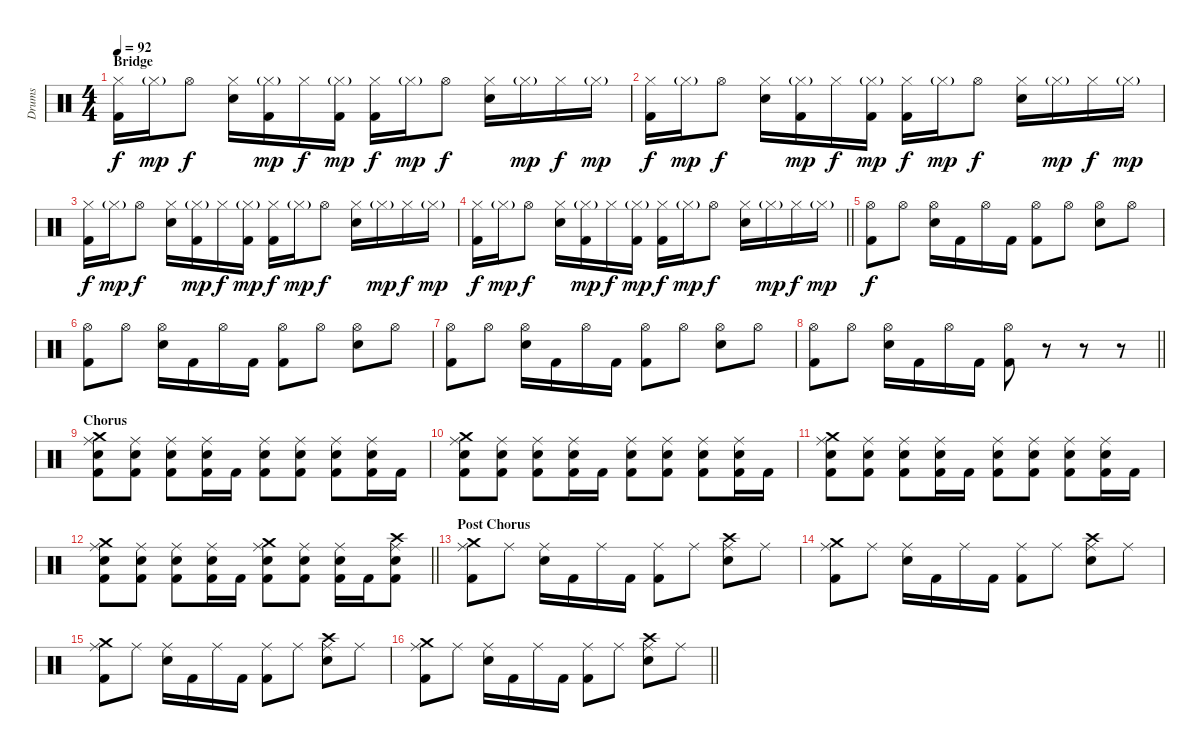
\track ("Drums" "Drums") {instrument percussion}
\staff {score}
\articulation defaults
\ts (4 4)
\section ("" "Bridge")
\tempo 92
\clef neutral
\ks c
("Hi-Hat (closed)" "Kick (hit) 2").16{dy f} "Hi-Hat (closed)"{g}.16{dy mp} "Hi-Hat (open)".8{dy f} ("Hi-Hat (closed)" "Electric Snare (hit)").16 ("Hi-Hat (closed)"{g} "Kick (hit) 2").16{dy mp} "Hi-Hat (closed)".16{dy f} ("Hi-Hat (closed)"{g} "Kick (hit) 2").16{dy mp} ("Hi-Hat (closed)" "Kick (hit) 2").16{dy f} "Hi-Hat (closed)"{g}.16{dy mp} "Hi-Hat (open)".8{dy f} ("Hi-Hat (closed)" "Electric Snare (hit)").16 "Hi-Hat (closed)"{g}.16{dy mp} "Hi-Hat (closed)".16{dy f} "Hi-Hat (closed)"{g}.16{dy mp} |
("Hi-Hat (closed)" "Kick (hit) 2").16{dy f} "Hi-Hat (closed)"{g}.16{dy mp} "Hi-Hat (open)".8{dy f} ("Hi-Hat (closed)" "Electric Snare (hit)").16 ("Hi-Hat (closed)"{g} "Kick (hit) 2").16{dy mp} "Hi-Hat (closed)".16{dy f} ("Hi-Hat (closed)"{g} "Kick (hit) 2").16{dy mp} ("Hi-Hat (closed)" "Kick (hit) 2").16{dy f} "Hi-Hat (closed)"{g}.16{dy mp} "Hi-Hat (open)".8{dy f} ("Hi-Hat (closed)" "Electric Snare (hit)").16 "Hi-Hat (closed)"{g}.16{dy mp} "Hi-Hat (closed)".16{dy f} "Hi-Hat (closed)"{g}.16{dy mp} |
("Hi-Hat (closed)" "Kick (hit) 2").16{dy f} "Hi-Hat (closed)"{g}.16{dy mp} "Hi-Hat (open)".8{dy f} ("Hi-Hat (closed)" "Electric Snare (hit)").16 ("Hi-Hat (closed)"{g} "Kick (hit) 2").16{dy mp} "Hi-Hat (closed)".16{dy f} ("Hi-Hat (closed)"{g} "Kick (hit) 2").16{dy mp} ("Hi-Hat (closed)" "Kick (hit) 2").16{dy f} "Hi-Hat (closed)"{g}.16{dy mp} "Hi-Hat (open)".8{dy f} ("Hi-Hat (closed)" "Electric Snare (hit)").16 "Hi-Hat (closed)"{g}.16{dy mp} "Hi-Hat (closed)".16{dy f} "Hi-Hat (closed)"{g}.16{dy mp} |
\barLineRight lightlight
("Hi-Hat (closed)" "Kick (hit) 2").16{dy f} "Hi-Hat (closed)"{g}.16{dy mp} "Hi-Hat (open)".8{dy f} ("Hi-Hat (closed)" "Electric Snare (hit)").16 ("Hi-Hat (closed)"{g} "Kick (hit) 2").16{dy mp} "Hi-Hat (closed)".16{dy f} ("Hi-Hat (closed)"{g} "Kick (hit) 2").16{dy mp} ("Hi-Hat (closed)" "Kick (hit) 2").16{dy f} "Hi-Hat (closed)"{g}.16{dy mp} "Hi-Hat (open)".8{dy f} ("Hi-Hat (closed)" "Electric Snare (hit)").16 "Hi-Hat (closed)"{g}.16{dy mp} "Hi-Hat (closed)".16{dy f} "Hi-Hat (closed)"{g}.16{dy mp} |
\section ("" "")
("Hi-Hat (open)" "Kick (hit) 2").8{dy f} "Hi-Hat (open)".8 ("Hi-Hat (open)" "Electric Snare (hit)").16 "Kick (hit) 2".16 "Hi-Hat (open)".16 "Kick (hit) 2".16 ("Hi-Hat (open)" "Kick (hit) 2").8 "Hi-Hat (open)".8 ("Hi-Hat (open)" "Electric Snare (hit)").8 "Hi-Hat (open)".8 |
("Hi-Hat (open)" "Kick (hit) 2").8 "Hi-Hat (open)".8 ("Hi-Hat (open)" "Electric Snare (hit)").16 "Kick (hit) 2".16 "Hi-Hat (open)".16 "Kick (hit) 2".16 ("Hi-Hat (open)" "Kick (hit) 2").8 "Hi-Hat (open)".8 ("Hi-Hat (open)" "Electric Snare (hit)").8 "Hi-Hat (open)".8 |
("Hi-Hat (open)" "Kick (hit) 2").8 "Hi-Hat (open)".8 ("Hi-Hat (open)" "Electric Snare (hit)").16 "Kick (hit) 2".16 "Hi-Hat (open)".16 "Kick (hit) 2".16 ("Hi-Hat (open)" "Kick (hit) 2").8 "Hi-Hat (open)".8 ("Hi-Hat (open)" "Electric Snare (hit)").8 "Hi-Hat (open)".8 |
\barLineRight lightlight
("Hi-Hat (open)" "Kick (hit) 2").8 "Hi-Hat (open)".8 ("Hi-Hat (open)" "Electric Snare (hit)").16 "Kick (hit) 2".16 "Hi-Hat (open)".16 "Kick (hit) 2".16 ("Hi-Hat (open)" "Kick (hit) 2").8 r.8 r.8 r.8 |
\section ("" "Chorus")
("Crash medium (hit)" "Ride (middle)" "Electric Snare (hit)" "Kick (hit) 2").8 ("Ride (middle)" "Electric Snare (hit)" "Kick (hit) 2").8 ("Ride (middle)" "Electric Snare (hit)" "Kick (hit) 2").8 ("Ride (middle)" "Electric Snare (hit)" "Kick (hit) 2").16 "Kick (hit) 2".16 ("Ride (middle)" "Electric Snare (hit)" "Kick (hit) 2").8 ("Ride (middle)" "Electric Snare (hit)" "Kick (hit) 2").8 ("Ride (middle)" "Electric Snare (hit)" "Kick (hit) 2").8 ("Ride (middle)" "Electric Snare (hit)" "Kick (hit) 2").16 "Kick (hit) 2".16 |
("Crash medium (hit)" "Ride (middle)" "Electric Snare (hit)" "Kick (hit) 2").8 ("Ride (middle)" "Electric Snare (hit)" "Kick (hit) 2").8 ("Ride (middle)" "Electric Snare (hit)" "Kick (hit) 2").8 ("Ride (middle)" "Electric Snare (hit)" "Kick (hit) 2").16 "Kick (hit) 2".16 ("Ride (middle)" "Electric Snare (hit)" "Kick (hit) 2").8 ("Ride (middle)" "Electric Snare (hit)" "Kick (hit) 2").8 ("Ride (middle)" "Electric Snare (hit)" "Kick (hit) 2").8 ("Ride (middle)" "Electric Snare (hit)" "Kick (hit) 2").16 "Kick (hit) 2".16 |
("Crash medium (hit)" "Ride (middle)" "Electric Snare (hit)" "Kick (hit) 2").8 ("Ride (middle)" "Electric Snare (hit)" "Kick (hit) 2").8 ("Ride (middle)" "Electric Snare (hit)" "Kick (hit) 2").8 ("Ride (middle)" "Electric Snare (hit)" "Kick (hit) 2").16 "Kick (hit) 2".16 ("Ride (middle)" "Electric Snare (hit)" "Kick (hit) 2").8 ("Ride (middle)" "Electric Snare (hit)" "Kick (hit) 2").8 ("Ride (middle)" "Electric Snare (hit)" "Kick (hit) 2").8 ("Ride (middle)" "Electric Snare (hit)" "Kick (hit) 2").16 "Kick (hit) 2".16 |
\barLineRight lightlight
("Crash medium (hit)" "Ride (middle)" "Electric Snare (hit)" "Kick (hit) 2").8 ("Ride (middle)" "Electric Snare (hit)" "Kick (hit) 2").8 ("Ride (middle)" "Electric Snare (hit)" "Kick (hit) 2").8 ("Ride (middle)" "Electric Snare (hit)" "Kick (hit) 2").16 "Kick (hit) 2".16 ("Crash medium (hit)" "Ride (middle)" "Electric Snare (hit)" "Kick (hit) 2").8 ("Ride (middle)" "Electric Snare (hit)" "Kick (hit) 2").8 ("Ride (middle)" "Electric Snare (hit)" "Kick (hit) 2").16 "Kick (hit) 2".16 ("Crash high (hit)" "Ride (middle)" "Electric Snare (hit)" "Kick (hit) 2").8 |
\section ("" "Post Chorus")
("Crash medium (hit)" "Ride (middle)" "Kick (hit) 2").8 "Ride (middle)".8 ("Ride (middle)" "Electric Snare (hit)").16 "Kick (hit) 2".16 "Ride (middle)".16 "Kick (hit) 2".16 ("Ride (middle)" "Kick (hit) 2").8 "Ride (middle)".8 ("Crash high (hit)" "Ride (middle)" "Electric Snare (hit)").8 "Ride (middle)".8 |
("Crash medium (hit)" "Ride (middle)" "Kick (hit) 2").8 "Ride (middle)".8 ("Ride (middle)" "Electric Snare (hit)").16 "Kick (hit) 2".16 "Ride (middle)".16 "Kick (hit) 2".16 ("Ride (middle)" "Kick (hit) 2").8 "Ride (middle)".8 ("Crash high (hit)" "Ride (middle)" "Electric Snare (hit)").8 "Ride (middle)".8 |
("Crash medium (hit)" "Ride (middle)" "Kick (hit) 2").8 "Ride (middle)".8 ("Ride (middle)" "Electric Snare (hit)").16 "Kick (hit) 2".16 "Ride (middle)".16 "Kick (hit) 2".16 ("Ride (middle)" "Kick (hit) 2").8 "Ride (middle)".8 ("Crash high (hit)" "Ride (middle)" "Electric Snare (hit)").8 "Ride (middle)".8 |
\barLineRight lightlight
("Crash medium (hit)" "Ride (middle)" "Kick (hit) 2").8 "Ride (middle)".8 ("Ride (middle)" "Electric Snare (hit)").16 "Kick (hit) 2".16 "Ride (middle)".16 "Kick (hit) 2".16 ("Ride (middle)" "Kick (hit) 2").8 "Ride (middle)".8 ("Crash high (hit)" "Ride (middle)" "Electric Snare (hit)").8 "Ride (middle)".8
